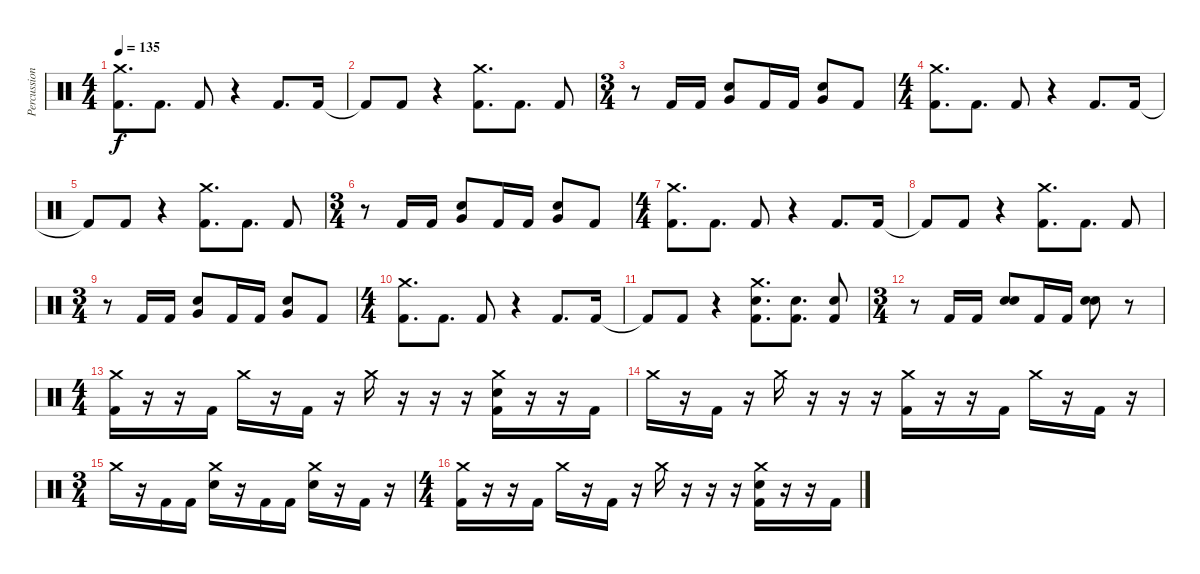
\track ("Percussion" "Percussion") {instrument percussion}
\staff {score}
\articulation defaults
\ts (4 4)
\tempo 135
\clef neutral
\ks c
("Crash medium (hit)" "Kick (hit) 2").8{d dy f} "Kick (hit) 2".8{d} "Kick (hit) 2".8 r.4 "Kick (hit) 2".8{d} "Kick (hit) 2".16 |
"Kick (hit) 2"{t}.8 "Kick (hit) 2".8 r.4 ("Crash medium (hit)" "Kick (hit) 2").8{d} "Kick (hit) 2".8{d} "Kick (hit) 2".8 |
\ts (3 4)
r.8 "Kick (hit) 2".16 "Kick (hit) 2".16 ("Electric Snare (hit)" "Very Low Tom (hit)").8{bu 60} "Kick (hit) 2".16 "Kick (hit) 2".16 ("Electric Snare (hit)" "Very Low Tom (hit)").8{bu 60} "Kick (hit) 2".8 |
\ts (4 4)
("Crash medium (hit)" "Kick (hit) 2").8{d} "Kick (hit) 2".8{d} "Kick (hit) 2".8 r.4 "Kick (hit) 2".8{d} "Kick (hit) 2".16 |
"Kick (hit) 2"{t}.8 "Kick (hit) 2".8 r.4 ("Crash medium (hit)" "Kick (hit) 2").8{d} "Kick (hit) 2".8{d} "Kick (hit) 2".8 |
\ts (3 4)
r.8 "Kick (hit) 2".16 "Kick (hit) 2".16 ("Electric Snare (hit)" "Very Low Tom (hit)").8{bu 60} "Kick (hit) 2".16 "Kick (hit) 2".16 ("Electric Snare (hit)" "Very Low Tom (hit)").8{bu 60} "Kick (hit) 2".8 |
\ts (4 4)
("Crash medium (hit)" "Kick (hit) 2").8{d} "Kick (hit) 2".8{d} "Kick (hit) 2".8 r.4 "Kick (hit) 2".8{d} "Kick (hit) 2".16 |
"Kick (hit) 2"{t}.8 "Kick (hit) 2".8 r.4 ("Crash medium (hit)" "Kick (hit) 2").8{d} "Kick (hit) 2".8{d} "Kick (hit) 2".8 |
\ts (3 4)
r.8 "Kick (hit) 2".16 "Kick (hit) 2".16 ("Electric Snare (hit)" "Very Low Tom (hit)").8{bu 60} "Kick (hit) 2".16 "Kick (hit) 2".16 ("Electric Snare (hit)" "Very Low Tom (hit)").8{bu 60} "Kick (hit) 2".8 |
\ts (4 4)
("Crash medium (hit)" "Kick (hit) 2").8{d} "Kick (hit) 2".8{d} "Kick (hit) 2".8 r.4 "Kick (hit) 2".8{d} "Kick (hit) 2".16 |
"Kick (hit) 2"{t}.8 "Kick (hit) 2".8 r.4 ("Crash medium (hit)" "Electric Snare (hit)" "Kick (hit) 2").8{d} ("Electric Snare (hit)" "Kick (hit) 2").8{d} ("Electric Snare (hit)" "Kick (hit) 2").8 |
\ts (3 4)
r.8 "Kick (hit) 2".16 "Kick (hit) 2".16 ("Electric Snare (hit)" "Electric Snare (hit)").8{bu 480} "Kick (hit) 2".16 "Kick (hit) 2".16 ("Electric Snare (hit)" "Electric Snare (hit)").8{bu 480} r.8 |
\ts (4 4)
("Crash medium (hit)" "Kick (hit) 2").16 r.16 r.16 "Kick (hit) 2".16 "Crash medium (hit)".16 r.16 "Kick (hit) 2".16 r.16 "Crash medium (hit)".16 r.16 r.16 r.16 ("Crash medium (hit)" "Electric Snare (hit)" "Kick (hit) 2").16 r.16 r.16 "Kick (hit) 2".16 |
"Crash medium (hit)".16 r.16 "Kick (hit) 2".16 r.16 "Crash medium (hit)".16 r.16 r.16 r.16 ("Crash medium (hit)" "Kick (hit) 2").16 r.16 r.16 "Kick (hit) 2".16 "Crash medium (hit)".16 r.16 "Kick (hit) 2".16 r.16 |
\ts (3 4)
"Crash medium (hit)".16 r.16 "Kick (hit) 2".16 "Kick (hit) 2".16 ("Crash medium (hit)" "Electric Snare (hit)").16 r.16 "Kick (hit) 2".16 "Kick (hit) 2".16 ("Crash medium (hit)" "Electric Snare (hit)").16 r.16 "Kick (hit) 2".16 r.16 |
\ts (4 4)
("Crash medium (hit)" "Kick (hit) 2").16 r.16 r.16 "Kick (hit) 2".16 "Crash medium (hit)".16 r.16 "Kick (hit) 2".16 r.16 "Crash medium (hit)".16 r.16 r.16 r.16 ("Crash medium (hit)" "Electric Snare (hit)" "Kick (hit) 2").16 r.16 r.16 "Kick (hit) 2".16
